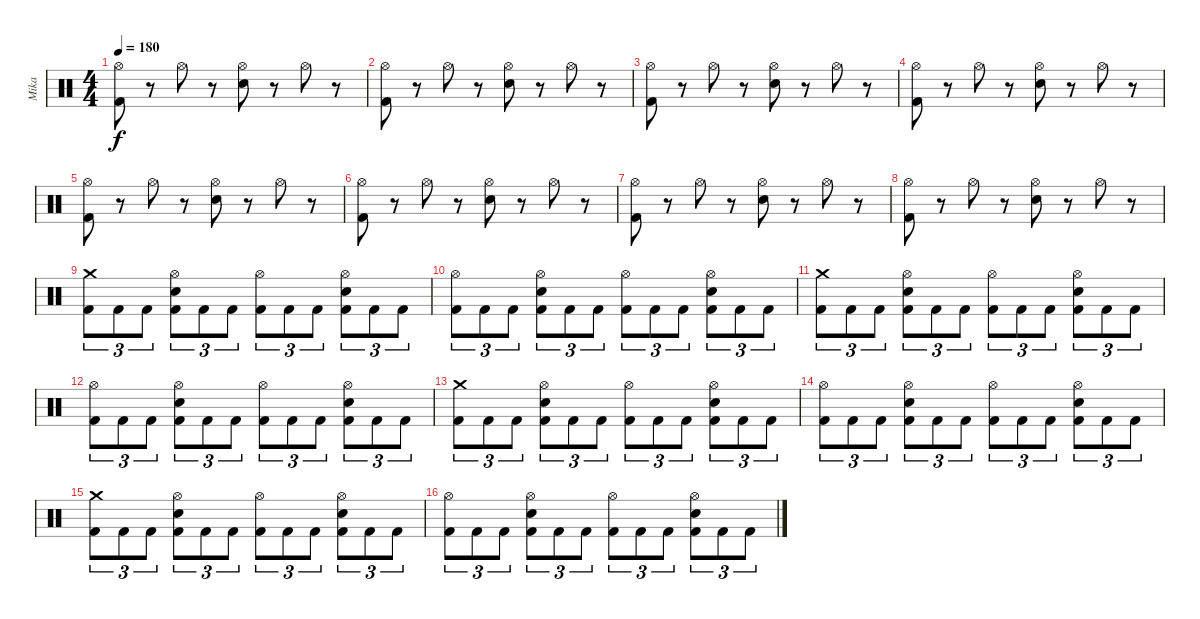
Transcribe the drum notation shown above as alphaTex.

\track ("Mika" "Mika") {instrument percussion}
\staff {score}
\articulation defaults
\ts (4 4)
\tempo 180
\clef neutral
\ks c
("Hi-Hat (open)" "Kick (hit) 2").8{dy f} r.8 "Hi-Hat (open)".8 r.8 ("Hi-Hat (open)" "Electric Snare (hit)").8 r.8 "Hi-Hat (open)".8 r.8 |
("Hi-Hat (open)" "Kick (hit) 2").8 r.8 "Hi-Hat (open)".8 r.8 ("Hi-Hat (open)" "Electric Snare (hit)").8 r.8 "Hi-Hat (open)".8 r.8 |
("Hi-Hat (open)" "Kick (hit) 2").8 r.8 "Hi-Hat (open)".8 r.8 ("Hi-Hat (open)" "Electric Snare (hit)").8 r.8 "Hi-Hat (open)".8 r.8 |
("Hi-Hat (open)" "Kick (hit) 2").8 r.8 "Hi-Hat (open)".8 r.8 ("Hi-Hat (open)" "Electric Snare (hit)").8 r.8 "Hi-Hat (open)".8 r.8 |
("Hi-Hat (open)" "Kick (hit) 2").8 r.8 "Hi-Hat (open)".8 r.8 ("Hi-Hat (open)" "Electric Snare (hit)").8 r.8 "Hi-Hat (open)".8 r.8 |
("Hi-Hat (open)" "Kick (hit) 2").8 r.8 "Hi-Hat (open)".8 r.8 ("Hi-Hat (open)" "Electric Snare (hit)").8 r.8 "Hi-Hat (open)".8 r.8 |
("Hi-Hat (open)" "Kick (hit) 2").8 r.8 "Hi-Hat (open)".8 r.8 ("Hi-Hat (open)" "Electric Snare (hit)").8 r.8 "Hi-Hat (open)".8 r.8 |
("Hi-Hat (open)" "Kick (hit) 2").8 r.8 "Hi-Hat (open)".8 r.8 ("Hi-Hat (open)" "Electric Snare (hit)").8 r.8 "Hi-Hat (open)".8 r.8 |
("Crash medium (hit)" "Kick (hit) 2").8{tu (3 2)} "Kick (hit) 2".8{tu (3 2)} "Kick (hit) 2".8{tu (3 2)} ("Hi-Hat (open)" "Electric Snare (hit)" "Kick (hit) 2").8{tu (3 2)} "Kick (hit) 2".8{tu (3 2)} "Kick (hit) 2".8{tu (3 2)} ("Hi-Hat (open)" "Kick (hit) 2").8{tu (3 2)} "Kick (hit) 2".8{tu (3 2)} "Kick (hit) 2".8{tu (3 2)} ("Hi-Hat (open)" "Electric Snare (hit)" "Kick (hit) 2").8{tu (3 2)} "Kick (hit) 2".8{tu (3 2)} "Kick (hit) 2".8{tu (3 2)} |
("Hi-Hat (open)" "Kick (hit) 2").8{tu (3 2)} "Kick (hit) 2".8{tu (3 2)} "Kick (hit) 2".8{tu (3 2)} ("Hi-Hat (open)" "Electric Snare (hit)" "Kick (hit) 2").8{tu (3 2)} "Kick (hit) 2".8{tu (3 2)} "Kick (hit) 2".8{tu (3 2)} ("Hi-Hat (open)" "Kick (hit) 2").8{tu (3 2)} "Kick (hit) 2".8{tu (3 2)} "Kick (hit) 2".8{tu (3 2)} ("Hi-Hat (open)" "Electric Snare (hit)" "Kick (hit) 2").8{tu (3 2)} "Kick (hit) 2".8{tu (3 2)} "Kick (hit) 2".8{tu (3 2)} |
("Crash medium (hit)" "Kick (hit) 2").8{tu (3 2)} "Kick (hit) 2".8{tu (3 2)} "Kick (hit) 2".8{tu (3 2)} ("Hi-Hat (open)" "Electric Snare (hit)" "Kick (hit) 2").8{tu (3 2)} "Kick (hit) 2".8{tu (3 2)} "Kick (hit) 2".8{tu (3 2)} ("Hi-Hat (open)" "Kick (hit) 2").8{tu (3 2)} "Kick (hit) 2".8{tu (3 2)} "Kick (hit) 2".8{tu (3 2)} ("Hi-Hat (open)" "Electric Snare (hit)" "Kick (hit) 2").8{tu (3 2)} "Kick (hit) 2".8{tu (3 2)} "Kick (hit) 2".8{tu (3 2)} |
("Hi-Hat (open)" "Kick (hit) 2").8{tu (3 2)} "Kick (hit) 2".8{tu (3 2)} "Kick (hit) 2".8{tu (3 2)} ("Hi-Hat (open)" "Electric Snare (hit)" "Kick (hit) 2").8{tu (3 2)} "Kick (hit) 2".8{tu (3 2)} "Kick (hit) 2".8{tu (3 2)} ("Hi-Hat (open)" "Kick (hit) 2").8{tu (3 2)} "Kick (hit) 2".8{tu (3 2)} "Kick (hit) 2".8{tu (3 2)} ("Hi-Hat (open)" "Electric Snare (hit)" "Kick (hit) 2").8{tu (3 2)} "Kick (hit) 2".8{tu (3 2)} "Kick (hit) 2".8{tu (3 2)} |
("Crash medium (hit)" "Kick (hit) 2").8{tu (3 2)} "Kick (hit) 2".8{tu (3 2)} "Kick (hit) 2".8{tu (3 2)} ("Hi-Hat (open)" "Electric Snare (hit)" "Kick (hit) 2").8{tu (3 2)} "Kick (hit) 2".8{tu (3 2)} "Kick (hit) 2".8{tu (3 2)} ("Hi-Hat (open)" "Kick (hit) 2").8{tu (3 2)} "Kick (hit) 2".8{tu (3 2)} "Kick (hit) 2".8{tu (3 2)} ("Hi-Hat (open)" "Electric Snare (hit)" "Kick (hit) 2").8{tu (3 2)} "Kick (hit) 2".8{tu (3 2)} "Kick (hit) 2".8{tu (3 2)} |
("Hi-Hat (open)" "Kick (hit) 2").8{tu (3 2)} "Kick (hit) 2".8{tu (3 2)} "Kick (hit) 2".8{tu (3 2)} ("Hi-Hat (open)" "Electric Snare (hit)" "Kick (hit) 2").8{tu (3 2)} "Kick (hit) 2".8{tu (3 2)} "Kick (hit) 2".8{tu (3 2)} ("Hi-Hat (open)" "Kick (hit) 2").8{tu (3 2)} "Kick (hit) 2".8{tu (3 2)} "Kick (hit) 2".8{tu (3 2)} ("Hi-Hat (open)" "Electric Snare (hit)" "Kick (hit) 2").8{tu (3 2)} "Kick (hit) 2".8{tu (3 2)} "Kick (hit) 2".8{tu (3 2)} |
("Crash medium (hit)" "Kick (hit) 2").8{tu (3 2)} "Kick (hit) 2".8{tu (3 2)} "Kick (hit) 2".8{tu (3 2)} ("Hi-Hat (open)" "Electric Snare (hit)" "Kick (hit) 2").8{tu (3 2)} "Kick (hit) 2".8{tu (3 2)} "Kick (hit) 2".8{tu (3 2)} ("Hi-Hat (open)" "Kick (hit) 2").8{tu (3 2)} "Kick (hit) 2".8{tu (3 2)} "Kick (hit) 2".8{tu (3 2)} ("Hi-Hat (open)" "Electric Snare (hit)" "Kick (hit) 2").8{tu (3 2)} "Kick (hit) 2".8{tu (3 2)} "Kick (hit) 2".8{tu (3 2)} |
("Hi-Hat (open)" "Kick (hit) 2").8{tu (3 2)} "Kick (hit) 2".8{tu (3 2)} "Kick (hit) 2".8{tu (3 2)} ("Hi-Hat (open)" "Electric Snare (hit)" "Kick (hit) 2").8{tu (3 2)} "Kick (hit) 2".8{tu (3 2)} "Kick (hit) 2".8{tu (3 2)} ("Hi-Hat (open)" "Kick (hit) 2").8{tu (3 2)} "Kick (hit) 2".8{tu (3 2)} "Kick (hit) 2".8{tu (3 2)} ("Hi-Hat (open)" "Electric Snare (hit)" "Kick (hit) 2").8{tu (3 2)} "Kick (hit) 2".8{tu (3 2)} "Kick (hit) 2".8{tu (3 2)}
